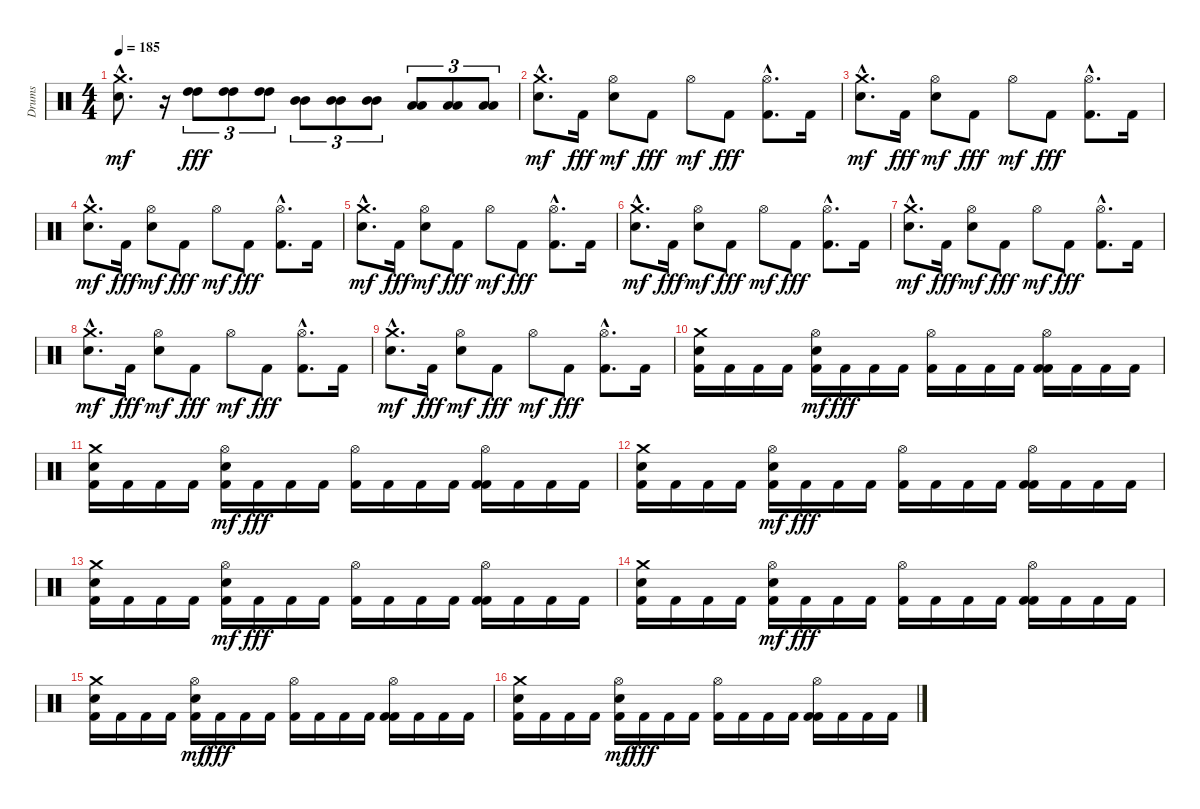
\track ("Drums" "Drums") {instrument percussion}
\staff {score}
\articulation defaults
\ts (4 4)
\tempo 185
\clef neutral
\ks c
("Crash medium (hit)"{hac} "Electric Snare (hit)"{hac}).8{d dy mf} r.16 ("High Tom (hit)" "High Tom (hit)").8{tu (3 2) dy fff} ("High Tom (hit)" "High Tom (hit)").8{tu (3 2)} ("High Tom (hit)" "High Tom (hit)").8{tu (3 2)} ("Mid Tom (hit)" "Mid Tom (hit)").8{tu (3 2)} ("Mid Tom (hit)" "Mid Tom (hit)").8{tu (3 2)} ("Mid Tom (hit)" "Mid Tom (hit)").8{tu (3 2)} ("Low Tom (hit)" "Low Tom (hit)").8{tu (3 2)} ("Low Tom (hit)" "Low Tom (hit)").8{tu (3 2)} ("Low Tom (hit)" "Low Tom (hit)").8{tu (3 2)} |
("Crash medium (hit)"{hac} "Electric Snare (hit)"{hac}).8{d dy mf} "Kick (hit) 2".16{dy fff} ("Hi-Hat (open)" "Electric Snare (hit)").8{dy mf} "Kick (hit) 2".8{dy fff} "Hi-Hat (open)".8{dy mf} "Kick (hit) 2".8{dy fff} ("Hi-Hat (open)"{hac} "Kick (hit) 2"{hac}).8{d} "Kick (hit) 2".16 |
("Crash medium (hit)"{hac} "Electric Snare (hit)"{hac}).8{d dy mf} "Kick (hit) 2".16{dy fff} ("Hi-Hat (open)" "Electric Snare (hit)").8{dy mf} "Kick (hit) 2".8{dy fff} "Hi-Hat (open)".8{dy mf} "Kick (hit) 2".8{dy fff} ("Hi-Hat (open)"{hac} "Kick (hit) 2"{hac}).8{d} "Kick (hit) 2".16 |
("Crash medium (hit)"{hac} "Electric Snare (hit)"{hac}).8{d dy mf} "Kick (hit) 2".16{dy fff} ("Hi-Hat (open)" "Electric Snare (hit)").8{dy mf} "Kick (hit) 2".8{dy fff} "Hi-Hat (open)".8{dy mf} "Kick (hit) 2".8{dy fff} ("Hi-Hat (open)"{hac} "Kick (hit) 2"{hac}).8{d} "Kick (hit) 2".16 |
("Crash medium (hit)"{hac} "Electric Snare (hit)"{hac}).8{d dy mf} "Kick (hit) 2".16{dy fff} ("Hi-Hat (open)" "Electric Snare (hit)").8{dy mf} "Kick (hit) 2".8{dy fff} "Hi-Hat (open)".8{dy mf} "Kick (hit) 2".8{dy fff} ("Hi-Hat (open)"{hac} "Kick (hit) 2"{hac}).8{d} "Kick (hit) 2".16 |
("Crash medium (hit)"{hac} "Electric Snare (hit)"{hac}).8{d dy mf} "Kick (hit) 2".16{dy fff} ("Hi-Hat (open)" "Electric Snare (hit)").8{dy mf} "Kick (hit) 2".8{dy fff} "Hi-Hat (open)".8{dy mf} "Kick (hit) 2".8{dy fff} ("Hi-Hat (open)"{hac} "Kick (hit) 2"{hac}).8{d} "Kick (hit) 2".16 |
("Crash medium (hit)"{hac} "Electric Snare (hit)"{hac}).8{d dy mf} "Kick (hit) 2".16{dy fff} ("Hi-Hat (open)" "Electric Snare (hit)").8{dy mf} "Kick (hit) 2".8{dy fff} "Hi-Hat (open)".8{dy mf} "Kick (hit) 2".8{dy fff} ("Hi-Hat (open)"{hac} "Kick (hit) 2"{hac}).8{d} "Kick (hit) 2".16 |
("Crash medium (hit)"{hac} "Electric Snare (hit)"{hac}).8{d dy mf} "Kick (hit) 2".16{dy fff} ("Hi-Hat (open)" "Electric Snare (hit)").8{dy mf} "Kick (hit) 2".8{dy fff} "Hi-Hat (open)".8{dy mf} "Kick (hit) 2".8{dy fff} ("Hi-Hat (open)"{hac} "Kick (hit) 2"{hac}).8{d} "Kick (hit) 2".16 |
("Crash medium (hit)"{hac} "Electric Snare (hit)"{hac}).8{d dy mf} "Kick (hit) 2".16{dy fff} ("Hi-Hat (open)" "Electric Snare (hit)").8{dy mf} "Kick (hit) 2".8{dy fff} "Hi-Hat (open)".8{dy mf} "Kick (hit) 2".8{dy fff} ("Hi-Hat (open)"{hac} "Kick (hit) 2"{hac}).8{d} "Kick (hit) 2".16 |
("Crash medium (hit)" "Electric Snare (hit)" "Kick (hit) 2").16 "Kick (hit) 2".16 "Kick (hit) 2".16 "Kick (hit) 2".16 ("Hi-Hat (open)" "Electric Snare (hit)" "Kick (hit) 2").16{dy mf} "Kick (hit) 2".16{dy fff} "Kick (hit) 2".16 "Kick (hit) 2".16 ("Hi-Hat (open)" "Kick (hit) 2").16 "Kick (hit) 2".16 "Kick (hit) 2".16 "Kick (hit) 2".16 ("Hi-Hat (open)" "Kick (hit) 2" "Kick (hit) 2").16 "Kick (hit) 2".16 "Kick (hit) 2".16 "Kick (hit) 2".16 |
("Crash medium (hit)" "Electric Snare (hit)" "Kick (hit) 2").16 "Kick (hit) 2".16 "Kick (hit) 2".16 "Kick (hit) 2".16 ("Hi-Hat (open)" "Electric Snare (hit)" "Kick (hit) 2").16{dy mf} "Kick (hit) 2".16{dy fff} "Kick (hit) 2".16 "Kick (hit) 2".16 ("Hi-Hat (open)" "Kick (hit) 2").16 "Kick (hit) 2".16 "Kick (hit) 2".16 "Kick (hit) 2".16 ("Hi-Hat (open)" "Kick (hit) 2" "Kick (hit) 2").16 "Kick (hit) 2".16 "Kick (hit) 2".16 "Kick (hit) 2".16 |
("Crash medium (hit)" "Electric Snare (hit)" "Kick (hit) 2").16 "Kick (hit) 2".16 "Kick (hit) 2".16 "Kick (hit) 2".16 ("Hi-Hat (open)" "Electric Snare (hit)" "Kick (hit) 2").16{dy mf} "Kick (hit) 2".16{dy fff} "Kick (hit) 2".16 "Kick (hit) 2".16 ("Hi-Hat (open)" "Kick (hit) 2").16 "Kick (hit) 2".16 "Kick (hit) 2".16 "Kick (hit) 2".16 ("Hi-Hat (open)" "Kick (hit) 2" "Kick (hit) 2").16 "Kick (hit) 2".16 "Kick (hit) 2".16 "Kick (hit) 2".16 |
("Crash medium (hit)" "Electric Snare (hit)" "Kick (hit) 2").16 "Kick (hit) 2".16 "Kick (hit) 2".16 "Kick (hit) 2".16 ("Hi-Hat (open)" "Electric Snare (hit)" "Kick (hit) 2").16{dy mf} "Kick (hit) 2".16{dy fff} "Kick (hit) 2".16 "Kick (hit) 2".16 ("Hi-Hat (open)" "Kick (hit) 2").16 "Kick (hit) 2".16 "Kick (hit) 2".16 "Kick (hit) 2".16 ("Hi-Hat (open)" "Kick (hit) 2" "Kick (hit) 2").16 "Kick (hit) 2".16 "Kick (hit) 2".16 "Kick (hit) 2".16 |
("Crash medium (hit)" "Electric Snare (hit)" "Kick (hit) 2").16 "Kick (hit) 2".16 "Kick (hit) 2".16 "Kick (hit) 2".16 ("Hi-Hat (open)" "Electric Snare (hit)" "Kick (hit) 2").16{dy mf} "Kick (hit) 2".16{dy fff} "Kick (hit) 2".16 "Kick (hit) 2".16 ("Hi-Hat (open)" "Kick (hit) 2").16 "Kick (hit) 2".16 "Kick (hit) 2".16 "Kick (hit) 2".16 ("Hi-Hat (open)" "Kick (hit) 2" "Kick (hit) 2").16 "Kick (hit) 2".16 "Kick (hit) 2".16 "Kick (hit) 2".16 |
("Crash medium (hit)" "Electric Snare (hit)" "Kick (hit) 2").16 "Kick (hit) 2".16 "Kick (hit) 2".16 "Kick (hit) 2".16 ("Hi-Hat (open)" "Electric Snare (hit)" "Kick (hit) 2").16{dy mf} "Kick (hit) 2".16{dy fff} "Kick (hit) 2".16 "Kick (hit) 2".16 ("Hi-Hat (open)" "Kick (hit) 2").16 "Kick (hit) 2".16 "Kick (hit) 2".16 "Kick (hit) 2".16 ("Hi-Hat (open)" "Kick (hit) 2" "Kick (hit) 2").16 "Kick (hit) 2".16 "Kick (hit) 2".16 "Kick (hit) 2".16 |
("Crash medium (hit)" "Electric Snare (hit)" "Kick (hit) 2").16 "Kick (hit) 2".16 "Kick (hit) 2".16 "Kick (hit) 2".16 ("Hi-Hat (open)" "Electric Snare (hit)" "Kick (hit) 2").16{dy mf} "Kick (hit) 2".16{dy fff} "Kick (hit) 2".16 "Kick (hit) 2".16 ("Hi-Hat (open)" "Kick (hit) 2").16 "Kick (hit) 2".16 "Kick (hit) 2".16 "Kick (hit) 2".16 ("Hi-Hat (open)" "Kick (hit) 2" "Kick (hit) 2").16 "Kick (hit) 2".16 "Kick (hit) 2".16 "Kick (hit) 2".16
